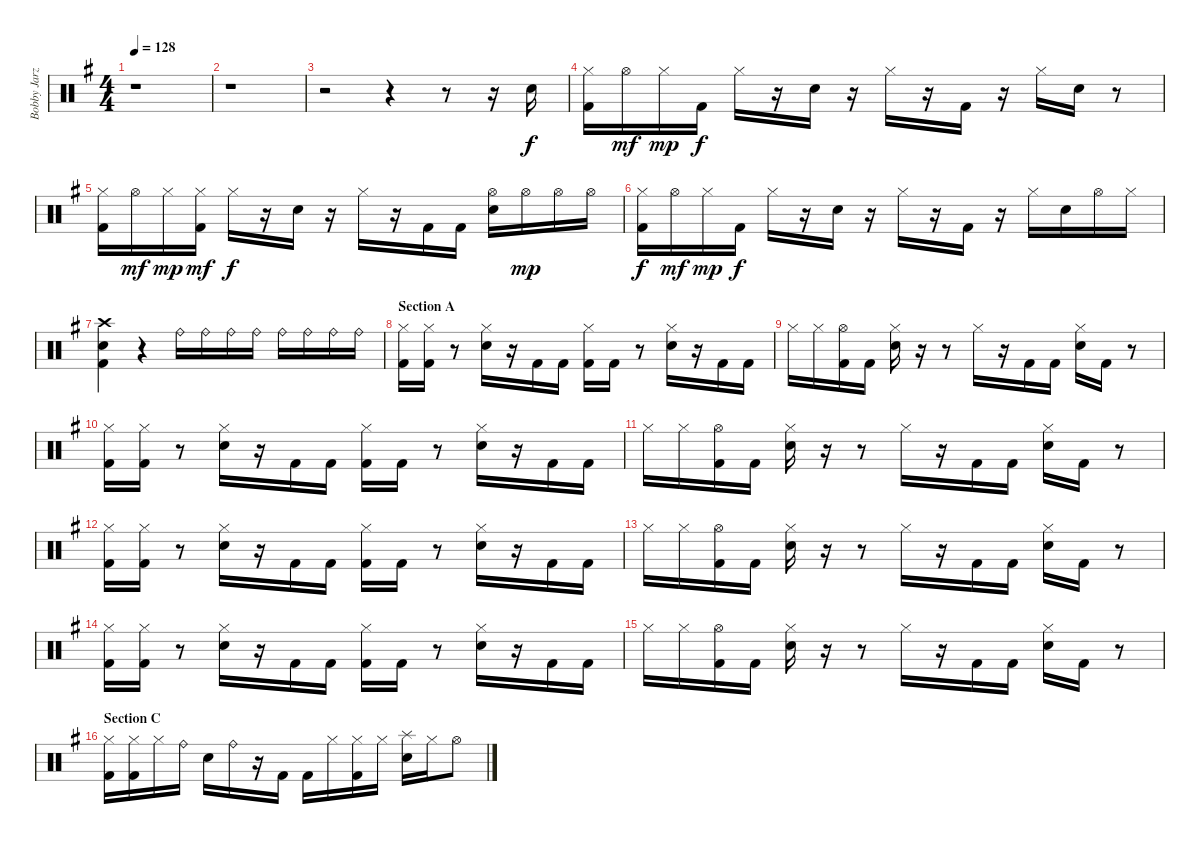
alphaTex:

\track ("Bobby Jarzombek" "Bobby Jarz") {instrument percussion}
\staff {score}
\articulation defaults
\ts (4 4)
\tempo 128
\clef neutral
\ks eminor
r.1{dy f} |
r.1 |
r.2 r.4 r.8 r.16 "Electric Snare (hit)".16 |
("Hi-Hat (closed)" "Kick (hit) 2").16 "Hi-Hat (open)".16{dy mf} "Hi-Hat (closed)".16{dy mp} "Kick (hit) 2".16{dy f} "Hi-Hat (closed)".16 r.16 "Electric Snare (hit)".16 r.16 "Hi-Hat (closed)".16 r.16 "Kick (hit) 2".16 r.16 "Hi-Hat (closed)".16 "Electric Snare (hit)".16 r.8 |
("Hi-Hat (closed)" "Kick (hit) 2").16 "Hi-Hat (open)".16{dy mf} "Hi-Hat (closed)".16{dy mp} ("Hi-Hat (closed)" "Kick (hit) 2").16{dy mf} "Hi-Hat (closed)".16{dy f} r.16 "Electric Snare (hit)".16 r.16 "Hi-Hat (closed)".16 r.16 "Kick (hit) 2".16 "Kick (hit) 2".16 ("Hi-Hat (open)" "Electric Snare (hit)").16 "Hi-Hat (open)".16{dy mp} "Hi-Hat (open)".16 "Hi-Hat (open)".16 |
("Hi-Hat (closed)" "Kick (hit) 2").16{dy f} "Hi-Hat (open)".16{dy mf} "Hi-Hat (closed)".16{dy mp} "Kick (hit) 2".16{dy f} "Hi-Hat (closed)".16 r.16 "Electric Snare (hit)".16 r.16 "Hi-Hat (closed)".16 r.16 "Kick (hit) 2".16 r.16 "Hi-Hat (closed)".16 "Electric Snare (hit)".16 "Hi-Hat (open)".16 "Hi-Hat (closed)".16 |
("Crash high (hit)" "Electric Snare (hit)" "Kick (hit) 2").4 r.4 "Ride (bell)".16 "Ride (bell)".16 "Ride (bell)".16 "Ride (bell)".16 "Ride (bell)".16 "Ride (bell)".16 "Ride (bell)".16 "Ride (bell)".16 |
\section ("" "Section A")
("Hi-Hat (closed)" "Kick (hit) 2").16 ("Hi-Hat (closed)" "Kick (hit) 2").16 r.8 ("Hi-Hat (closed)" "Electric Snare (hit)").16 r.16 "Kick (hit) 2".16 "Kick (hit) 2".16 ("Hi-Hat (closed)" "Kick (hit) 2").16 "Kick (hit) 2".16 r.8 ("Hi-Hat (closed)" "Electric Snare (hit)").16 r.16 "Kick (hit) 2".16 "Kick (hit) 2".16 |
"Hi-Hat (closed)".16 "Hi-Hat (closed)".16 ("Hi-Hat (open)" "Kick (hit) 2").16 "Kick (hit) 2".16 ("Hi-Hat (closed)" "Electric Snare (hit)").16 r.16 r.8 "Hi-Hat (closed)".16 r.16 "Kick (hit) 2".16 "Kick (hit) 2".16 ("Hi-Hat (closed)" "Electric Snare (hit)").16 "Kick (hit) 2".16 r.8 |
("Hi-Hat (closed)" "Kick (hit) 2").16 ("Hi-Hat (closed)" "Kick (hit) 2").16 r.8 ("Hi-Hat (closed)" "Electric Snare (hit)").16 r.16 "Kick (hit) 2".16 "Kick (hit) 2".16 ("Hi-Hat (closed)" "Kick (hit) 2").16 "Kick (hit) 2".16 r.8 ("Hi-Hat (closed)" "Electric Snare (hit)").16 r.16 "Kick (hit) 2".16 "Kick (hit) 2".16 |
"Hi-Hat (closed)".16 "Hi-Hat (closed)".16 ("Hi-Hat (open)" "Kick (hit) 2").16 "Kick (hit) 2".16 ("Hi-Hat (closed)" "Electric Snare (hit)").16 r.16 r.8 "Hi-Hat (closed)".16 r.16 "Kick (hit) 2".16 "Kick (hit) 2".16 ("Hi-Hat (closed)" "Electric Snare (hit)").16 "Kick (hit) 2".16 r.8 |
("Hi-Hat (closed)" "Kick (hit) 2").16 ("Hi-Hat (closed)" "Kick (hit) 2").16 r.8 ("Hi-Hat (closed)" "Electric Snare (hit)").16 r.16 "Kick (hit) 2".16 "Kick (hit) 2".16 ("Hi-Hat (closed)" "Kick (hit) 2").16 "Kick (hit) 2".16 r.8 ("Hi-Hat (closed)" "Electric Snare (hit)").16 r.16 "Kick (hit) 2".16 "Kick (hit) 2".16 |
"Hi-Hat (closed)".16 "Hi-Hat (closed)".16 ("Hi-Hat (open)" "Kick (hit) 2").16 "Kick (hit) 2".16 ("Hi-Hat (closed)" "Electric Snare (hit)").16 r.16 r.8 "Hi-Hat (closed)".16 r.16 "Kick (hit) 2".16 "Kick (hit) 2".16 ("Hi-Hat (closed)" "Electric Snare (hit)").16 "Kick (hit) 2".16 r.8 |
("Hi-Hat (closed)" "Kick (hit) 2").16 ("Hi-Hat (closed)" "Kick (hit) 2").16 r.8 ("Hi-Hat (closed)" "Electric Snare (hit)").16 r.16 "Kick (hit) 2".16 "Kick (hit) 2".16 ("Hi-Hat (closed)" "Kick (hit) 2").16 "Kick (hit) 2".16 r.8 ("Hi-Hat (closed)" "Electric Snare (hit)").16 r.16 "Kick (hit) 2".16 "Kick (hit) 2".16 |
"Hi-Hat (closed)".16 "Hi-Hat (closed)".16 ("Hi-Hat (open)" "Kick (hit) 2").16 "Kick (hit) 2".16 ("Hi-Hat (closed)" "Electric Snare (hit)").16 r.16 r.8 "Hi-Hat (closed)".16 r.16 "Kick (hit) 2".16 "Kick (hit) 2".16 ("Hi-Hat (closed)" "Electric Snare (hit)").16 "Kick (hit) 2".16 r.8 |
\section ("" "Section C")
("Hi-Hat (closed)" "Kick (hit) 2").16 ("Hi-Hat (closed)" "Kick (hit) 2").16 "Hi-Hat (closed)".16 "Ride (bell)".16 "Electric Snare (hit)".16 "Ride (bell)".16 r.16 "Kick (hit) 2".16 "Kick (hit) 2".16 "Hi-Hat (closed)".16 ("Hi-Hat (closed)" "Kick (hit) 2").16 "Hi-Hat (closed)".16 ("Splash (hit)" "Electric Snare (hit)").16 "Hi-Hat (closed)".16 "Hi-Hat (open)".8
